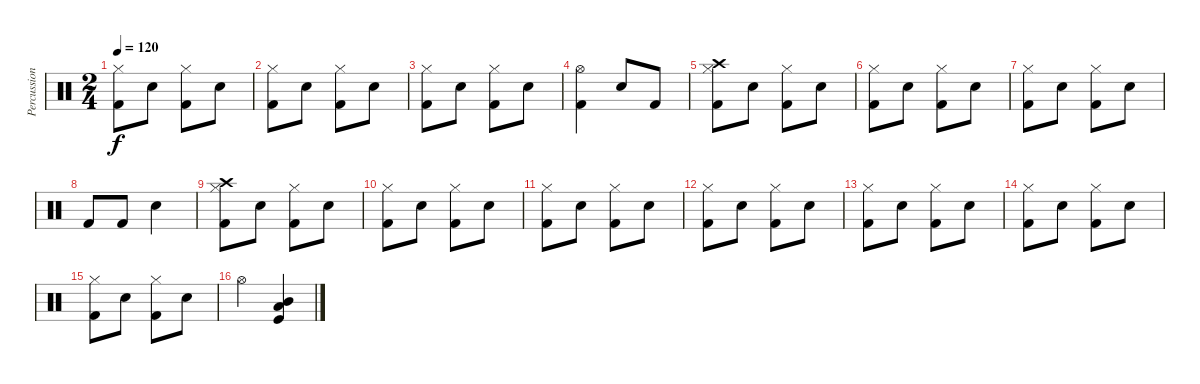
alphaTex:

\track ("Percussion" "Percussion") {instrument percussion}
\staff {score}
\articulation defaults
\ts (2 4)
\tempo 120
\clef neutral
\ks c
("Hi-Hat (closed)" "Kick (hit) 2").8{dy f} "Snare (hit) 2".8 ("Hi-Hat (closed)" "Kick (hit) 2").8 "Snare (hit) 2".8 |
("Hi-Hat (closed)" "Kick (hit) 2").8 "Snare (hit) 2".8 ("Hi-Hat (closed)" "Kick (hit) 2").8 "Snare (hit) 2".8 |
("Hi-Hat (closed)" "Kick (hit) 2").8 "Snare (hit) 2".8 ("Hi-Hat (closed)" "Kick (hit) 2").8 "Snare (hit) 2".8 |
("Hi-Hat (open)" "Kick (hit) 2").4 "Snare (hit) 2".8 "Kick (hit) 2".8 |
("Crash high (hit)" "Hi-Hat (closed)" "Kick (hit) 2").8 "Snare (hit) 2".8 ("Hi-Hat (closed)" "Kick (hit) 2").8 "Snare (hit) 2".8 |
("Hi-Hat (closed)" "Kick (hit) 2").8 "Snare (hit) 2".8 ("Hi-Hat (closed)" "Kick (hit) 2").8 "Snare (hit) 2".8 |
("Hi-Hat (closed)" "Kick (hit) 2").8 "Snare (hit) 2".8 ("Hi-Hat (closed)" "Kick (hit) 2").8 "Snare (hit) 2".8 |
"Kick (hit) 2".8 "Kick (hit) 2".8 "Snare (hit) 2".4 |
("Crash high (hit)" "Hi-Hat (closed)" "Kick (hit) 2").8 "Snare (hit) 2".8 ("Hi-Hat (closed)" "Kick (hit) 2").8 "Snare (hit) 2".8 |
("Hi-Hat (closed)" "Kick (hit) 2").8 "Snare (hit) 2".8 ("Hi-Hat (closed)" "Kick (hit) 2").8 "Snare (hit) 2".8 |
("Hi-Hat (closed)" "Kick (hit) 2").8 "Snare (hit) 2".8 ("Hi-Hat (closed)" "Kick (hit) 2").8 "Snare (hit) 2".8 |
("Hi-Hat (closed)" "Kick (hit) 2").8 "Snare (hit) 2".8 ("Hi-Hat (closed)" "Kick (hit) 2").8 "Snare (hit) 2".8 |
("Hi-Hat (closed)" "Kick (hit) 2").8 "Snare (hit) 2".8 ("Hi-Hat (closed)" "Kick (hit) 2").8 "Snare (hit) 2".8 |
("Hi-Hat (closed)" "Kick (hit) 2").8 "Snare (hit) 2".8 ("Hi-Hat (closed)" "Kick (hit) 2").8 "Snare (hit) 2".8 |
("Hi-Hat (closed)" "Kick (hit) 2").8 "Snare (hit) 2".8 ("Hi-Hat (closed)" "Kick (hit) 2").8 "Snare (hit) 2".8 |
"Hi-Hat (open)".4 ("Kick (hit)" "Mid Tom (hit)" "Low Tom (hit)").4
